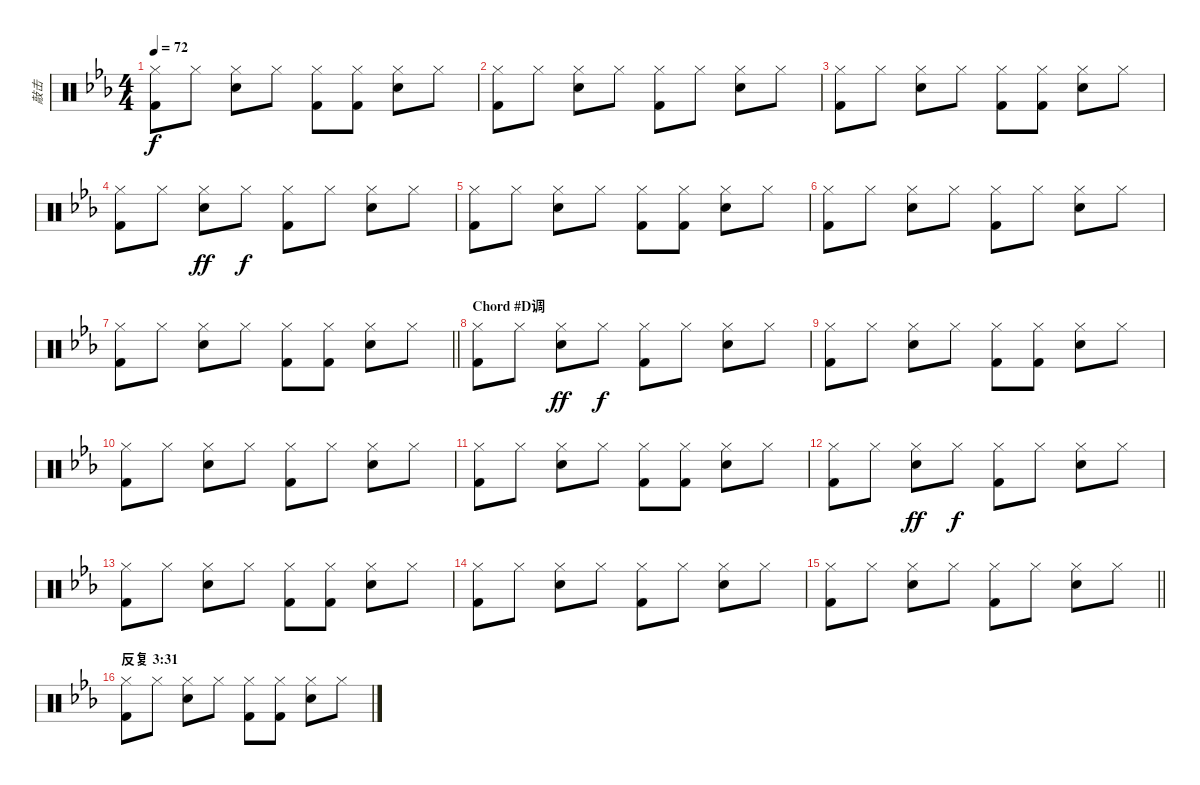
\track ("敲击" "敲击") {instrument percussion}
\staff {score}
\articulation defaults
\ts (4 4)
\tempo 72
\clef neutral
\ks eb
("Hi-Hat (closed)" "Kick (hit) 2").8{dy f} "Hi-Hat (closed)".8 ("Hi-Hat (closed)" "Snare (hit) 2").8 "Hi-Hat (closed)".8 ("Hi-Hat (closed)" "Kick (hit) 2").8 ("Hi-Hat (closed)" "Kick (hit) 2").8 ("Hi-Hat (closed)" "Snare (hit) 2").8 "Hi-Hat (closed)".8 |
("Hi-Hat (closed)" "Kick (hit) 2").8 "Hi-Hat (closed)".8 ("Hi-Hat (closed)" "Snare (hit) 2").8 "Hi-Hat (closed)".8 ("Hi-Hat (closed)" "Kick (hit) 2").8 "Hi-Hat (closed)".8 ("Hi-Hat (closed)" "Snare (hit) 2").8 "Hi-Hat (closed)".8 |
("Hi-Hat (closed)" "Kick (hit) 2").8 "Hi-Hat (closed)".8 ("Hi-Hat (closed)" "Snare (hit) 2").8 "Hi-Hat (closed)".8 ("Hi-Hat (closed)" "Kick (hit) 2").8 ("Hi-Hat (closed)" "Kick (hit) 2").8 ("Hi-Hat (closed)" "Snare (hit) 2").8 "Hi-Hat (closed)".8 |
("Hi-Hat (closed)" "Kick (hit) 2").8 "Hi-Hat (closed)".8 ("Hi-Hat (closed)" "Snare (hit) 2").8{dy ff} "Hi-Hat (closed)".8{dy f} ("Hi-Hat (closed)" "Kick (hit) 2").8 "Hi-Hat (closed)".8 ("Hi-Hat (closed)" "Snare (hit) 2").8 "Hi-Hat (closed)".8 |
("Hi-Hat (closed)" "Kick (hit) 2").8 "Hi-Hat (closed)".8 ("Hi-Hat (closed)" "Snare (hit) 2").8 "Hi-Hat (closed)".8 ("Hi-Hat (closed)" "Kick (hit) 2").8 ("Hi-Hat (closed)" "Kick (hit) 2").8 ("Hi-Hat (closed)" "Snare (hit) 2").8 "Hi-Hat (closed)".8 |
("Hi-Hat (closed)" "Kick (hit) 2").8 "Hi-Hat (closed)".8 ("Hi-Hat (closed)" "Snare (hit) 2").8 "Hi-Hat (closed)".8 ("Hi-Hat (closed)" "Kick (hit) 2").8 "Hi-Hat (closed)".8 ("Hi-Hat (closed)" "Snare (hit) 2").8 "Hi-Hat (closed)".8 |
\barLineRight lightlight
("Hi-Hat (closed)" "Kick (hit) 2").8 "Hi-Hat (closed)".8 ("Hi-Hat (closed)" "Snare (hit) 2").8 "Hi-Hat (closed)".8 ("Hi-Hat (closed)" "Kick (hit) 2").8 ("Hi-Hat (closed)" "Kick (hit) 2").8 ("Hi-Hat (closed)" "Snare (hit) 2").8 "Hi-Hat (closed)".8 |
\section ("" "Chord #D调")
("Hi-Hat (closed)" "Kick (hit) 2").8 "Hi-Hat (closed)".8 ("Hi-Hat (closed)" "Snare (hit) 2").8{dy ff} "Hi-Hat (closed)".8{dy f} ("Hi-Hat (closed)" "Kick (hit) 2").8 "Hi-Hat (closed)".8 ("Hi-Hat (closed)" "Snare (hit) 2").8 "Hi-Hat (closed)".8 |
("Hi-Hat (closed)" "Kick (hit) 2").8 "Hi-Hat (closed)".8 ("Hi-Hat (closed)" "Snare (hit) 2").8 "Hi-Hat (closed)".8 ("Hi-Hat (closed)" "Kick (hit) 2").8 ("Hi-Hat (closed)" "Kick (hit) 2").8 ("Hi-Hat (closed)" "Snare (hit) 2").8 "Hi-Hat (closed)".8 |
("Hi-Hat (closed)" "Kick (hit) 2").8 "Hi-Hat (closed)".8 ("Hi-Hat (closed)" "Snare (hit) 2").8 "Hi-Hat (closed)".8 ("Hi-Hat (closed)" "Kick (hit) 2").8 "Hi-Hat (closed)".8 ("Hi-Hat (closed)" "Snare (hit) 2").8 "Hi-Hat (closed)".8 |
("Hi-Hat (closed)" "Kick (hit) 2").8 "Hi-Hat (closed)".8 ("Hi-Hat (closed)" "Snare (hit) 2").8 "Hi-Hat (closed)".8 ("Hi-Hat (closed)" "Kick (hit) 2").8 ("Hi-Hat (closed)" "Kick (hit) 2").8 ("Hi-Hat (closed)" "Snare (hit) 2").8 "Hi-Hat (closed)".8 |
("Hi-Hat (closed)" "Kick (hit) 2").8 "Hi-Hat (closed)".8 ("Hi-Hat (closed)" "Snare (hit) 2").8{dy ff} "Hi-Hat (closed)".8{dy f} ("Hi-Hat (closed)" "Kick (hit) 2").8 "Hi-Hat (closed)".8 ("Hi-Hat (closed)" "Snare (hit) 2").8 "Hi-Hat (closed)".8 |
("Hi-Hat (closed)" "Kick (hit) 2").8 "Hi-Hat (closed)".8 ("Hi-Hat (closed)" "Snare (hit) 2").8 "Hi-Hat (closed)".8 ("Hi-Hat (closed)" "Kick (hit) 2").8 ("Hi-Hat (closed)" "Kick (hit) 2").8 ("Hi-Hat (closed)" "Snare (hit) 2").8 "Hi-Hat (closed)".8 |
("Hi-Hat (closed)" "Kick (hit) 2").8 "Hi-Hat (closed)".8 ("Hi-Hat (closed)" "Snare (hit) 2").8 "Hi-Hat (closed)".8 ("Hi-Hat (closed)" "Kick (hit) 2").8 "Hi-Hat (closed)".8 ("Hi-Hat (closed)" "Snare (hit) 2").8 "Hi-Hat (closed)".8 |
\barLineRight lightlight
("Hi-Hat (closed)" "Kick (hit) 2").8 "Hi-Hat (closed)".8 ("Hi-Hat (closed)" "Snare (hit) 2").8 "Hi-Hat (closed)".8 ("Hi-Hat (closed)" "Kick (hit) 2").8 "Hi-Hat (closed)".8 ("Hi-Hat (closed)" "Snare (hit) 2").8 "Hi-Hat (closed)".8 |
\section ("" "反复 3:31")
("Hi-Hat (closed)" "Kick (hit) 2").8 "Hi-Hat (closed)".8 ("Hi-Hat (closed)" "Snare (hit) 2").8 "Hi-Hat (closed)".8 ("Hi-Hat (closed)" "Kick (hit) 2").8 ("Hi-Hat (closed)" "Kick (hit) 2").8 ("Hi-Hat (closed)" "Snare (hit) 2").8 "Hi-Hat (closed)".8
